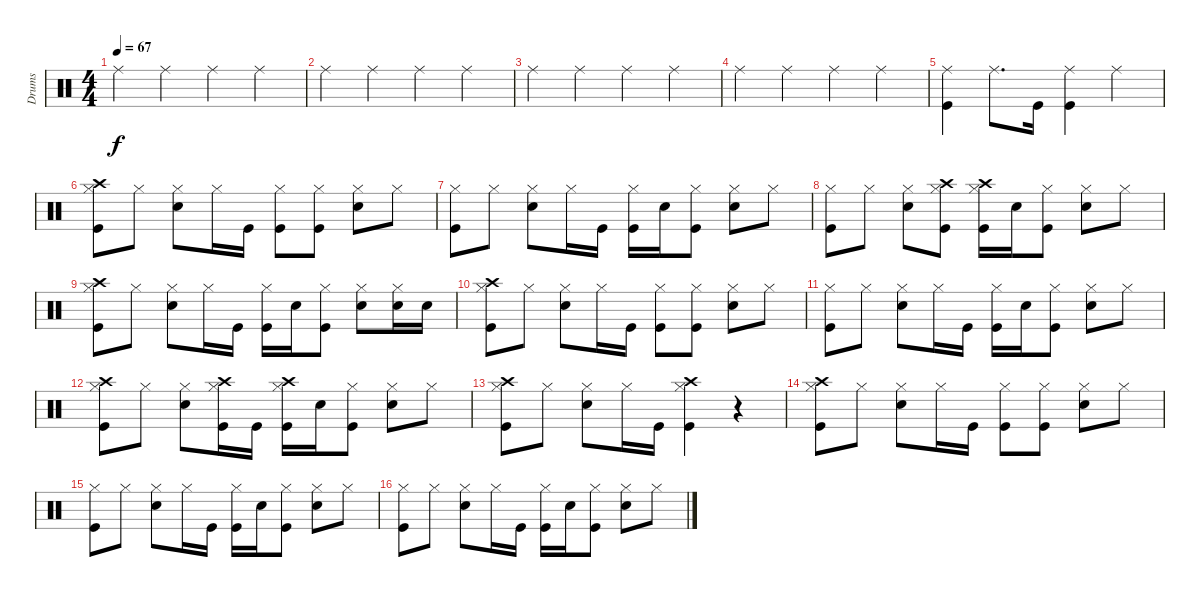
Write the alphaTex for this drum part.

\track ("Drums" "Drums") {instrument percussion}
\staff {score}
\articulation defaults
\ts (4 4)
\tempo 67
\clef neutral
\ks c "Ride (middle)".4{dy f} "Ride (middle)".4 "Ride (middle)".4 "Ride (middle)".4
|
"Ride (middle)".4 "Ride (middle)".4 "Ride (middle)".4 "Ride (middle)".4 |
"Ride (middle)".4 "Ride (middle)".4 "Ride (middle)".4 "Ride (middle)".4 |
"Ride (middle)".4 "Ride (middle)".4 "Ride (middle)".4 "Ride (middle)".4 |
("Ride (middle)" "Kick (hit)").4 "Ride (middle)".8{d} "Kick (hit)".16 ("Ride (middle)" "Kick (hit)").4 "Ride (middle)".4 |
("Crash high (hit)" "Hi-Hat (closed)" "Kick (hit)").8 "Hi-Hat (closed)".8 ("Hi-Hat (closed)" "Electric Snare (hit)").8 "Hi-Hat (closed)".16 "Kick (hit)".16 ("Hi-Hat (closed)" "Kick (hit)").8 ("Hi-Hat (closed)" "Kick (hit)").8 ("Hi-Hat (closed)" "Electric Snare (hit)").8 "Hi-Hat (closed)".8 |
("Hi-Hat (closed)" "Kick (hit)").8 "Hi-Hat (closed)".8 ("Hi-Hat (closed)" "Electric Snare (hit)").8 "Hi-Hat (closed)".16 "Kick (hit)".16 ("Hi-Hat (closed)" "Kick (hit)").16 "Electric Snare (hit)".16 ("Hi-Hat (closed)" "Kick (hit)").8 ("Hi-Hat (closed)" "Electric Snare (hit)").8 "Hi-Hat (closed)".8 |
("Hi-Hat (closed)" "Kick (hit)").8 "Hi-Hat (closed)".8 ("Hi-Hat (closed)" "Electric Snare (hit)").8 ("Crash high (hit)" "Hi-Hat (closed)" "Kick (hit)").8 ("Crash high (hit)" "Hi-Hat (closed)" "Kick (hit)").16 "Electric Snare (hit)".16 ("Hi-Hat (closed)" "Kick (hit)").8 ("Hi-Hat (closed)" "Electric Snare (hit)").8 "Hi-Hat (closed)".8 |
("Crash high (hit)" "Hi-Hat (closed)" "Kick (hit)").8 "Hi-Hat (closed)".8 ("Hi-Hat (closed)" "Electric Snare (hit)").8 "Hi-Hat (closed)".16 "Kick (hit)".16 ("Hi-Hat (closed)" "Kick (hit)").16 "Electric Snare (hit)".16 ("Hi-Hat (closed)" "Kick (hit)").8 ("Hi-Hat (closed)" "Electric Snare (hit)").8 ("Hi-Hat (closed)" "Electric Snare (hit)").16 "Electric Snare (hit)".16 |
("Crash high (hit)" "Hi-Hat (closed)" "Kick (hit)").8 "Hi-Hat (closed)".8 ("Hi-Hat (closed)" "Electric Snare (hit)").8 "Hi-Hat (closed)".16 "Kick (hit)".16 ("Hi-Hat (closed)" "Kick (hit)").8 ("Hi-Hat (closed)" "Kick (hit)").8 ("Hi-Hat (closed)" "Electric Snare (hit)").8 "Hi-Hat (closed)".8 |
("Hi-Hat (closed)" "Kick (hit)").8 "Hi-Hat (closed)".8 ("Hi-Hat (closed)" "Electric Snare (hit)").8 "Hi-Hat (closed)".16 "Kick (hit)".16 ("Hi-Hat (closed)" "Kick (hit)").16 "Electric Snare (hit)".16 ("Hi-Hat (closed)" "Kick (hit)").8 ("Hi-Hat (closed)" "Electric Snare (hit)").8 "Hi-Hat (closed)".8 |
("Crash high (hit)" "Hi-Hat (closed)" "Kick (hit)").8 "Hi-Hat (closed)".8 ("Hi-Hat (closed)" "Electric Snare (hit)").8 ("Crash high (hit)" "Hi-Hat (closed)" "Kick (hit)").16 "Kick (hit)".16 ("Crash high (hit)" "Hi-Hat (closed)" "Kick (hit)").16 "Electric Snare (hit)".16 ("Hi-Hat (closed)" "Kick (hit)").8 ("Hi-Hat (closed)" "Electric Snare (hit)").8 "Hi-Hat (closed)".8 |
("Crash high (hit)" "Hi-Hat (closed)" "Kick (hit)").8 "Hi-Hat (closed)".8 ("Hi-Hat (closed)" "Electric Snare (hit)").8 "Hi-Hat (closed)".16 "Kick (hit)".16 ("Crash high (hit)" "Hi-Hat (closed)" "Kick (hit)").4 r.4 |
("Crash high (hit)" "Hi-Hat (closed)" "Kick (hit)").8 "Hi-Hat (closed)".8 ("Hi-Hat (closed)" "Electric Snare (hit)").8 "Hi-Hat (closed)".16 "Kick (hit)".16 ("Hi-Hat (closed)" "Kick (hit)").8 ("Hi-Hat (closed)" "Kick (hit)").8 ("Hi-Hat (closed)" "Electric Snare (hit)").8 "Hi-Hat (closed)".8 |
("Hi-Hat (closed)" "Kick (hit)").8 "Hi-Hat (closed)".8 ("Hi-Hat (closed)" "Electric Snare (hit)").8 "Hi-Hat (closed)".16 "Kick (hit)".16 ("Hi-Hat (closed)" "Kick (hit)").16 "Electric Snare (hit)".16 ("Hi-Hat (closed)" "Kick (hit)").8 ("Hi-Hat (closed)" "Electric Snare (hit)").8 "Hi-Hat (closed)".8 |
("Hi-Hat (closed)" "Kick (hit)").8 "Hi-Hat (closed)".8 ("Hi-Hat (closed)" "Electric Snare (hit)").8 "Hi-Hat (closed)".16 "Kick (hit)".16 ("Hi-Hat (closed)" "Kick (hit)").16 "Electric Snare (hit)".16 ("Hi-Hat (closed)" "Kick (hit)").8 ("Hi-Hat (closed)" "Electric Snare (hit)").8 "Hi-Hat (closed)".8
